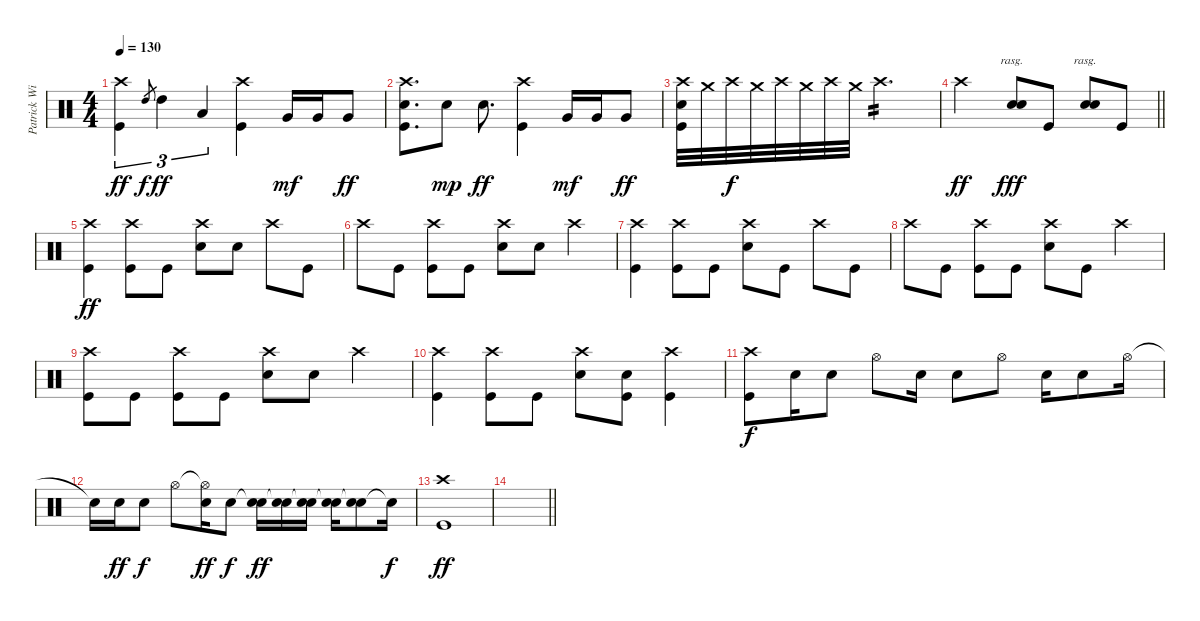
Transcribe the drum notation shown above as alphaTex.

\track ("Patrick Wilson" "Patrick Wi") {instrument percussion}
\staff {score}
\articulation defaults
\ts (4 4)
\tempo 130
\clef neutral
\ks c
("Crash high (hit)" "Kick (hit)").4{tu (3 2) dy ff} "High Tom (hit)".8{gr dy f} "High Tom (hit)".4{tu (3 2) dy ff} "Low Tom (hit)".4{tu (3 2)} ("Crash high (hit)" "Kick (hit)").4 "Very Low Tom (hit)".16{dy mf} "Very Low Tom (hit)".16 "Very Low Tom (hit)".8{dy ff} |
("Crash high (hit)" "Electric Snare (hit)" "Kick (hit)").8{d} "Electric Snare (hit)".8{dy mp} "Electric Snare (hit)".8{d dy ff} ("Crash high (hit)" "Kick (hit)").4 "Very Low Tom (hit)".16{dy mf} "Very Low Tom (hit)".16 "Very Low Tom (hit)".8{dy ff} |
("Crash high (hit)" "Electric Snare (hit)" "Kick (hit)").32 "Crash medium (hit)".32 "Crash high (hit)".32{dy f} "Crash medium (hit)".32 "Crash high (hit)".32 "Crash medium (hit)".32 "Crash high (hit)".32 "Crash medium (hit)".32 "Crash high (hit)".2{d tp 2} |
\barLineRight lightlight "Crash high (hit)".2{dy ff}
("Electric Snare (hit)" "Electric Snare (hit)").8{bd 480 rasg ii dy fff} "Kick (hit)".8 ("Electric Snare (hit)" "Electric Snare (hit)").8{bd 480 rasg ii} "Kick (hit)".8 |
("Crash high (hit)" "Kick (hit)").4{dy ff} ("Crash high (hit)" "Kick (hit)").8 "Kick (hit)".8 ("Crash high (hit)" "Electric Snare (hit)").8 "Electric Snare (hit)".8 "Crash high (hit)".8 "Kick (hit)".8 |
"Crash high (hit)".8 "Kick (hit)".8 ("Crash high (hit)" "Kick (hit)").8 "Kick (hit)".8 ("Crash high (hit)" "Electric Snare (hit)").8 "Electric Snare (hit)".8 "Crash high (hit)".4 |
("Crash high (hit)" "Kick (hit)").4 ("Crash high (hit)" "Kick (hit)").8 "Kick (hit)".8 ("Crash high (hit)" "Electric Snare (hit)").8 "Kick (hit)".8 "Crash high (hit)".8 "Kick (hit)".8 |
"Crash high (hit)".8 "Kick (hit)".8 ("Crash high (hit)" "Kick (hit)").8 "Kick (hit)".8 ("Crash high (hit)" "Electric Snare (hit)").8 "Kick (hit)".8 "Crash high (hit)".4 |
("Crash high (hit)" "Kick (hit)").8 "Kick (hit)".8 ("Crash high (hit)" "Kick (hit)").8 "Kick (hit)".8 ("Crash high (hit)" "Electric Snare (hit)").8 "Electric Snare (hit)".8 "Crash high (hit)".4 |
("Crash high (hit)" "Kick (hit)").4 ("Crash high (hit)" "Kick (hit)").8 "Kick (hit)".8 ("Crash high (hit)" "Electric Snare (hit)").8 ("Electric Snare (hit)" "Kick (hit)").8 ("Crash high (hit)" "Kick (hit)").4 |
("Crash high (hit)" "Kick (hit)").8{dy f} "Electric Snare (hit)".16 "Electric Snare (hit)".8 "Hi-Hat (open)".8 "Electric Snare (hit)".16 "Electric Snare (hit)".8 "Hi-Hat (open)".8 "Electric Snare (hit)".16 "Electric Snare (hit)".8 "Hi-Hat (open)".16 |
"Snare (hit)"{t}.16 "Electric Snare (hit)".16{dy ff} "Electric Snare (hit)".8{dy f} "Hi-Hat (open)".8 ("Hi-Hat (open)"{t} "Electric Snare (hit)").16{dy ff} "Electric Snare (hit)".8{dy f} ("Snare (hit)"{t} "Electric Snare (hit)").16{dy ff} ("Snare (hit)"{t} "Electric Snare (hit)").16 ("Snare (hit)"{t} "Electric Snare (hit)").16 ("Snare (hit)"{t} "Electric Snare (hit)").16 ("Snare (hit)"{t} "Electric Snare (hit)").8 "Snare (hit)"{t}.16{dy f} |
("Crash high (hit)" "Kick (hit)").1{dy ff} |
\barLineRight lightlight
